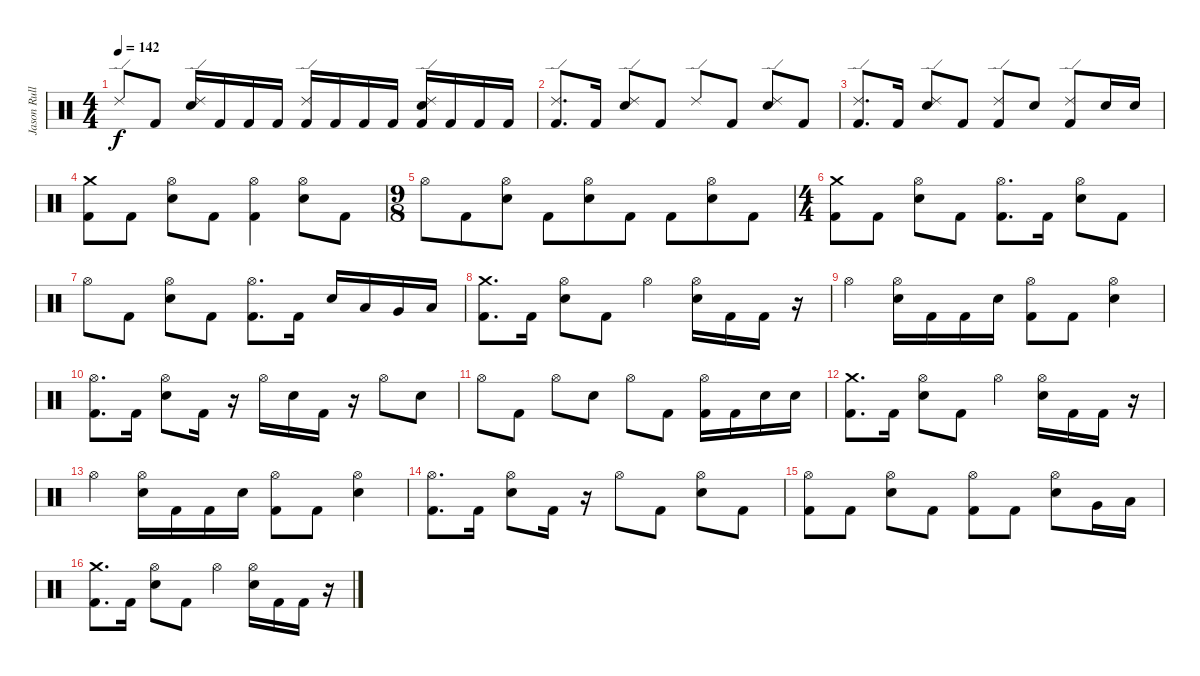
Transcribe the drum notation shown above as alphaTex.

\track ("Jason Rullo (drums)" "Jason Rull") {solo instrument percussion}
\staff {score}
\articulation defaults
\ts (4 4)
\tempo 142
\clef neutral
\ks c "Ride (edge) 2".8{dy f} "Kick (hit) 2".8
("Electric Snare (hit)" "Ride (edge) 2").16 "Kick (hit) 2".16 "Kick (hit) 2".16 "Kick (hit) 2".16 ("Kick (hit) 2" "Ride (edge) 2").16 "Kick (hit) 2".16 "Kick (hit) 2".16 "Kick (hit) 2".16 ("Electric Snare (hit)" "Kick (hit) 2" "Ride (edge) 2").16 "Kick (hit) 2".16 "Kick (hit) 2".16 "Kick (hit) 2".16 |
("Ride (edge) 2" "Kick (hit) 2").8{d} "Kick (hit) 2".16 ("Ride (edge) 2" "Electric Snare (hit)").8 "Kick (hit) 2".8 "Ride (edge) 2".8 "Kick (hit) 2".8 ("Ride (edge) 2" "Electric Snare (hit)").8 "Kick (hit) 2".8 |
("Ride (edge) 2" "Kick (hit) 2").8{d} "Kick (hit) 2".16 ("Ride (edge) 2" "Electric Snare (hit)").8 "Kick (hit) 2".8 ("Kick (hit) 2" "Ride (edge) 2").8 "Electric Snare (hit)".8 ("Ride (edge) 2" "Kick (hit) 2").8 "Electric Snare (hit)".16 "Electric Snare (hit)".16 |
("Crash medium (hit)" "Kick (hit) 2").8{volume 16 balance 8} "Kick (hit) 2".8 ("Hi-Hat (open)" "Electric Snare (hit)").8 "Kick (hit) 2".8 ("Hi-Hat (open)" "Kick (hit) 2").4 ("Hi-Hat (open)" "Electric Snare (hit)").8 "Kick (hit) 2".8 |
\ts (9 8)
"Hi-Hat (open)".8 "Kick (hit) 2".8 ("Hi-Hat (open)" "Electric Snare (hit)").8 "Kick (hit) 2".8 ("Hi-Hat (open)" "Electric Snare (hit)").8 "Kick (hit) 2".8 "Kick (hit) 2".8 ("Hi-Hat (open)" "Electric Snare (hit)").8 "Kick (hit) 2".8 |
\ts (4 4)
("Crash medium (hit)" "Kick (hit) 2").8 "Kick (hit) 2".8 ("Hi-Hat (open)" "Electric Snare (hit)").8 "Kick (hit) 2".8 ("Hi-Hat (open)" "Kick (hit) 2").8{d} "Kick (hit) 2".16 ("Hi-Hat (open)" "Electric Snare (hit)").8 "Kick (hit) 2".8 |
"Hi-Hat (open)".8 "Kick (hit) 2".8 ("Hi-Hat (open)" "Electric Snare (hit)").8 "Kick (hit) 2".8 ("Kick (hit) 2" "Hi-Hat (open)").8{d} "Kick (hit) 2".16 "Electric Snare (hit)".16 "Low Tom (hit)".16 "Very Low Tom (hit)".16 "Low Floor Tom (hit)".16 |
("Crash medium (hit)" "Kick (hit) 2").8{d} "Kick (hit) 2".16 ("Hi-Hat (open)" "Electric Snare (hit)").8 "Kick (hit) 2".8 "Hi-Hat (open)".4 ("Hi-Hat (open)" "Electric Snare (hit)").16 "Kick (hit) 2".16 "Kick (hit) 2".16 r.16 |
"Hi-Hat (open)".4 ("Hi-Hat (open)" "Electric Snare (hit)").16 "Kick (hit) 2".16 "Kick (hit) 2".16 "Electric Snare (hit)".16 ("Hi-Hat (open)" "Kick (hit) 2").8 "Kick (hit) 2".8 ("Hi-Hat (open)" "Electric Snare (hit)").4 |
("Hi-Hat (open)" "Kick (hit) 2").8{d} "Kick (hit) 2".16 ("Hi-Hat (open)" "Electric Snare (hit)").8 "Kick (hit) 2".16 r.16 "Hi-Hat (open)".16 "Electric Snare (hit)".16 "Kick (hit) 2".16 r.16 "Hi-Hat (open)".8 "Electric Snare (hit)".8 |
"Hi-Hat (open)".8 "Kick (hit) 2".8 "Hi-Hat (open)".8 "Electric Snare (hit)".8 "Hi-Hat (open)".8 "Kick (hit) 2".8 ("Hi-Hat (open)" "Kick (hit) 2").16 "Kick (hit) 2".16 "Electric Snare (hit)".16 "Electric Snare (hit)".16 |
("Crash medium (hit)" "Kick (hit) 2").8{d} "Kick (hit) 2".16 ("Hi-Hat (open)" "Electric Snare (hit)").8 "Kick (hit) 2".8 "Hi-Hat (open)".4 ("Hi-Hat (open)" "Electric Snare (hit)").16 "Kick (hit) 2".16 "Kick (hit) 2".16 r.16 |
"Hi-Hat (open)".4 ("Hi-Hat (open)" "Electric Snare (hit)").16 "Kick (hit) 2".16 "Kick (hit) 2".16 "Electric Snare (hit)".16 ("Hi-Hat (open)" "Kick (hit) 2").8 "Kick (hit) 2".8 ("Hi-Hat (open)" "Electric Snare (hit)").4 |
("Hi-Hat (open)" "Kick (hit) 2").8{d} "Kick (hit) 2".16 ("Hi-Hat (open)" "Electric Snare (hit)").8 "Kick (hit) 2".16 r.16 "Hi-Hat (open)".8 "Kick (hit) 2".8 ("Electric Snare (hit)" "Hi-Hat (open)").8 "Kick (hit) 2".8 |
("Hi-Hat (open)" "Kick (hit) 2").8 "Kick (hit) 2".8 ("Hi-Hat (open)" "Electric Snare (hit)").8 "Kick (hit) 2".8 ("Hi-Hat (open)" "Kick (hit) 2").8 "Kick (hit) 2".8 ("Hi-Hat (open)" "Electric Snare (hit)").8 "Very Low Tom (hit)".16 "Low Floor Tom (hit)".16 |
("Crash medium (hit)" "Kick (hit) 2").8{d} "Kick (hit) 2".16 ("Hi-Hat (open)" "Electric Snare (hit)").8 "Kick (hit) 2".8 "Hi-Hat (open)".4 ("Hi-Hat (open)" "Electric Snare (hit)").16 "Kick (hit) 2".16 "Kick (hit) 2".16 r.16
